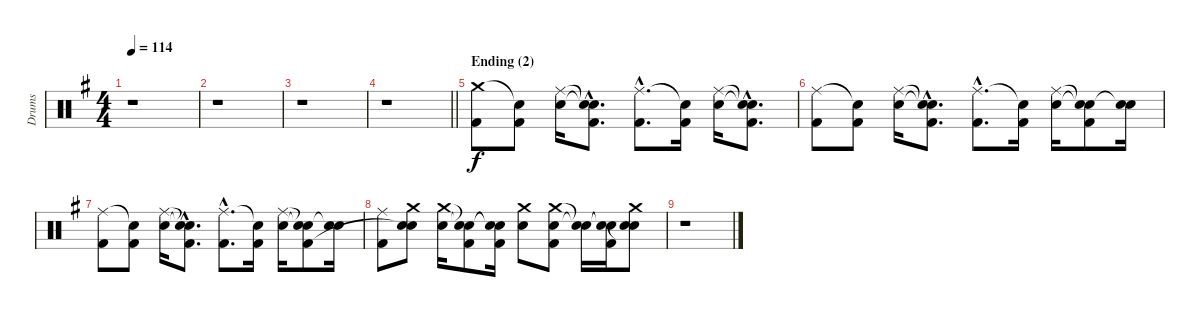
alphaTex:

\track ("Drums" "Drums") {instrument percussion}
\staff {score}
\articulation defaults
\ts (4 4)
\tempo 114
\clef neutral
\ks eminor
r.1{dy f} |
r.1 |
r.1 |
\barLineRight lightlight
r.1 |
\section ("" "Ending (2)")
("Crash medium (hit)" "Kick (hit) 2").8 ("Snare (hit)"{t} "Kick (hit) 2").8 ("Ride (middle)" "Electric Snare (hit)").16 ("Snare (hit)"{hac t} "Snare (hit)"{hac t} "Kick (hit) 2"{hac}).8{d} ("Ride (middle)"{hac} "Kick (hit) 2"{hac}).8{d} ("Snare (hit)"{t} "Kick (hit) 2").16 ("Ride (middle)" "Electric Snare (hit)").16 ("Snare (hit)"{hac t} "Snare (hit)"{hac t} "Kick (hit) 2"{hac}).8{d} |
("Ride (middle)" "Kick (hit) 2").8 ("Snare (hit)"{t} "Kick (hit) 2").8 ("Ride (middle)" "Electric Snare (hit)").16 ("Snare (hit)"{hac t} "Snare (hit)"{hac t} "Kick (hit) 2"{hac}).8{d} ("Ride (middle)"{hac} "Kick (hit) 2"{hac}).8{d} ("Snare (hit)"{t} "Kick (hit) 2").16 ("Ride (middle)" "Electric Snare (hit)").16 ("Snare (hit)"{t} "Snare (hit)"{t} "Kick (hit) 2").8 ("Electric Snare (hit)" "Snare (hit)"{t}).16 |
("Ride (middle)" "Kick (hit) 2").8 ("Snare (hit)"{t} "Kick (hit) 2").8 ("Ride (middle)" "Electric Snare (hit)").16 ("Snare (hit)"{hac t} "Snare (hit)"{hac t} "Kick (hit) 2"{hac}).8{d} ("Ride (middle)"{hac} "Kick (hit) 2"{hac}).8{d} ("Snare (hit)"{t} "Kick (hit) 2").16 ("Ride (middle)" "Electric Snare (hit)").16 ("Snare (hit)"{t} "Snare (hit)"{t} "Kick (hit) 2").8 ("Electric Snare (hit)" "Snare (hit)"{t}).16 |
("Ride (middle)" "Kick (hit) 2").8 ("Crash medium (hit)" "Electric Snare (hit)" "Snare (hit)"{t}).8 ("Crash medium (hit)" "Electric Snare (hit)").16 ("Snare (hit)"{t} "Snare (hit)"{t} "Kick (hit) 2").8 ("Snare (hit)"{t} "Snare (hit)"{t} "Kick (hit) 2").16 ("Crash medium (hit)" "Electric Snare (hit)").8 ("Crash medium (hit)" "Electric Snare (hit)" "Kick (hit) 2").8 ("Snare (hit)"{t} "Snare (hit)"{t}).16 ("Snare (hit)"{t} "Snare (hit)"{t} "Kick (hit) 2").16 ("Crash medium (hit)" "Electric Snare (hit)" "Snare (hit)"{t}).8 |
r.1
